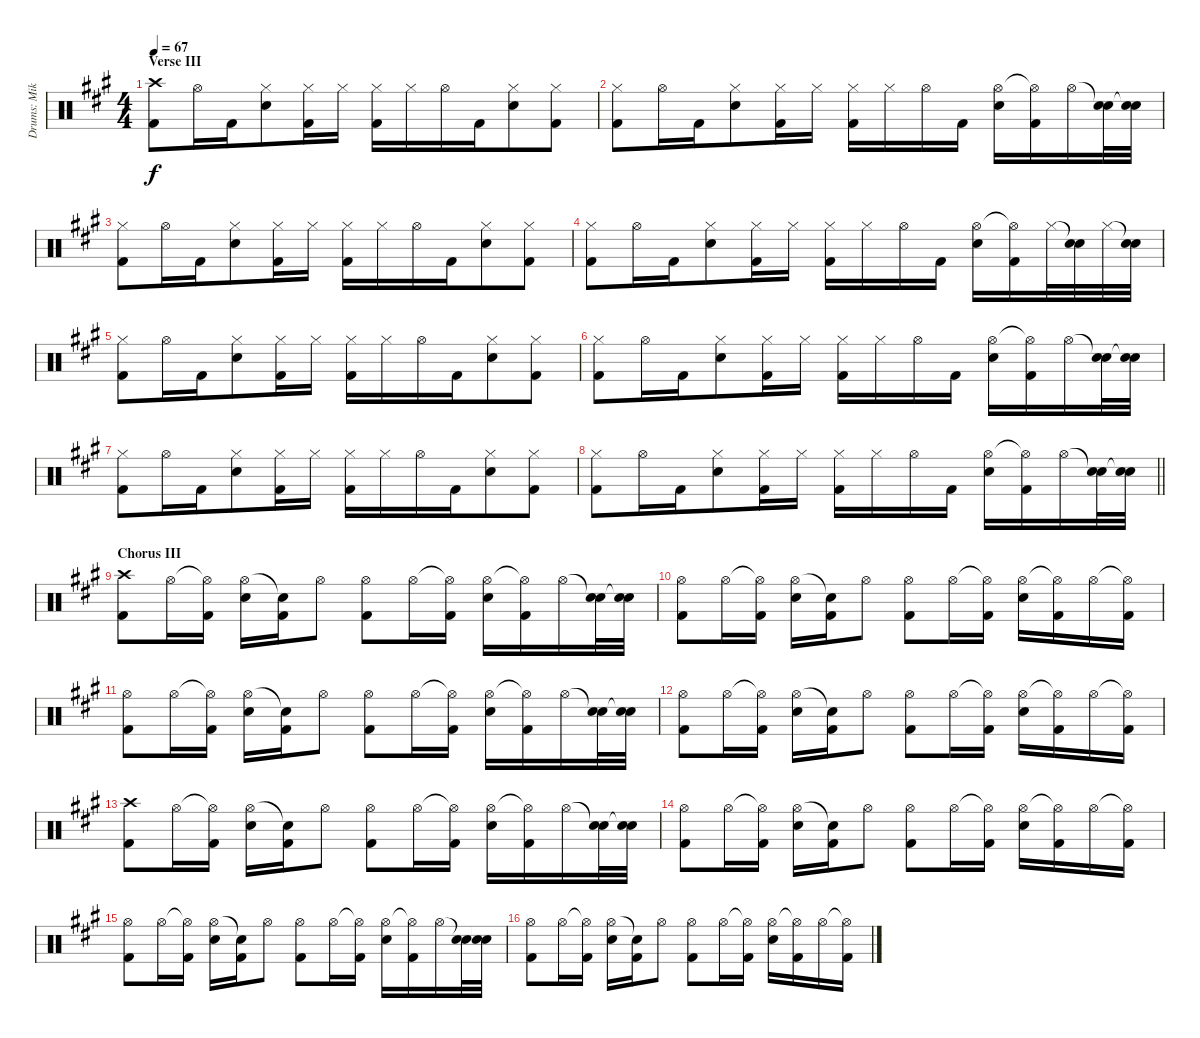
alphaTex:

\track ("Drums: Mike" "Drums: Mik") {instrument percussion}
\staff {score}
\articulation defaults
\ts (4 4)
\section ("" "Verse III")
\tempo 67
\clef neutral
\ks a
("Crash high (hit)" "Kick (hit) 2").8{dy f} "Hi-Hat (open)".16 "Kick (hit) 2".16{beam merge} ("Hi-Hat (closed)" "Electric Snare (hit)").8 ("Hi-Hat (closed)" "Kick (hit) 2").16 "Hi-Hat (closed)".16 ("Hi-Hat (closed)" "Kick (hit) 2").16 "Hi-Hat (closed)".16 "Hi-Hat (open)".16 "Kick (hit) 2".16{beam merge} ("Hi-Hat (closed)" "Electric Snare (hit)").8 ("Hi-Hat (closed)" "Kick (hit) 2").8 |
("Hi-Hat (closed)" "Kick (hit) 2").8 "Hi-Hat (open)".16 "Kick (hit) 2".16{beam merge} ("Hi-Hat (closed)" "Electric Snare (hit)").8 ("Hi-Hat (closed)" "Kick (hit) 2").16 "Hi-Hat (closed)".16 ("Hi-Hat (closed)" "Kick (hit) 2").16 "Hi-Hat (closed)".16 "Hi-Hat (open)".16 "Kick (hit) 2".16 ("Hi-Hat (open)" "Electric Snare (hit)").16 ("Hi-Hat (open)"{t} "Kick (hit) 2").16 "Hi-Hat (open)".16 ("Snare (hit)"{t} "Electric Snare (hit)").32 ("Snare (hit)"{t} "Electric Snare (hit)").32 |
("Hi-Hat (closed)" "Kick (hit) 2").8 "Hi-Hat (open)".16 "Kick (hit) 2".16{beam merge} ("Hi-Hat (closed)" "Electric Snare (hit)").8 ("Hi-Hat (closed)" "Kick (hit) 2").16 "Hi-Hat (closed)".16 ("Hi-Hat (closed)" "Kick (hit) 2").16 "Hi-Hat (closed)".16 "Hi-Hat (open)".16 "Kick (hit) 2".16{beam merge} ("Hi-Hat (closed)" "Electric Snare (hit)").8 ("Hi-Hat (closed)" "Kick (hit) 2").8 |
("Hi-Hat (closed)" "Kick (hit) 2").8 "Hi-Hat (open)".16 "Kick (hit) 2".16{beam merge} ("Hi-Hat (closed)" "Electric Snare (hit)").8 ("Hi-Hat (closed)" "Kick (hit) 2").16 "Hi-Hat (closed)".16 ("Hi-Hat (closed)" "Kick (hit) 2").16 "Hi-Hat (closed)".16 "Hi-Hat (open)".16 "Kick (hit) 2".16 ("Hi-Hat (open)" "Electric Snare (hit)").16 ("Hi-Hat (open)"{t} "Kick (hit) 2").16 "Hi-Hat (closed)".32 ("Snare (hit)"{t} "Electric Snare (hit)").32 "Hi-Hat (closed)".32 ("Snare (hit)"{t} "Electric Snare (hit)").32 |
("Hi-Hat (closed)" "Kick (hit) 2").8 "Hi-Hat (open)".16 "Kick (hit) 2".16{beam merge} ("Hi-Hat (closed)" "Electric Snare (hit)").8 ("Hi-Hat (closed)" "Kick (hit) 2").16 "Hi-Hat (closed)".16 ("Hi-Hat (closed)" "Kick (hit) 2").16 "Hi-Hat (closed)".16 "Hi-Hat (open)".16 "Kick (hit) 2".16{beam merge} ("Hi-Hat (closed)" "Electric Snare (hit)").8 ("Hi-Hat (closed)" "Kick (hit) 2").8 |
("Hi-Hat (closed)" "Kick (hit) 2").8 "Hi-Hat (open)".16 "Kick (hit) 2".16{beam merge} ("Hi-Hat (closed)" "Electric Snare (hit)").8 ("Hi-Hat (closed)" "Kick (hit) 2").16 "Hi-Hat (closed)".16 ("Hi-Hat (closed)" "Kick (hit) 2").16 "Hi-Hat (closed)".16 "Hi-Hat (open)".16 "Kick (hit) 2".16 ("Hi-Hat (open)" "Electric Snare (hit)").16 ("Hi-Hat (open)"{t} "Kick (hit) 2").16 "Hi-Hat (open)".16 ("Snare (hit)"{t} "Electric Snare (hit)").32 ("Snare (hit)"{t} "Electric Snare (hit)").32 |
("Hi-Hat (closed)" "Kick (hit) 2").8 "Hi-Hat (open)".16 "Kick (hit) 2".16{beam merge} ("Hi-Hat (closed)" "Electric Snare (hit)").8 ("Hi-Hat (closed)" "Kick (hit) 2").16 "Hi-Hat (closed)".16 ("Hi-Hat (closed)" "Kick (hit) 2").16 "Hi-Hat (closed)".16 "Hi-Hat (open)".16 "Kick (hit) 2".16{beam merge} ("Hi-Hat (closed)" "Electric Snare (hit)").8 ("Hi-Hat (closed)" "Kick (hit) 2").8 |
\barLineRight lightlight
("Hi-Hat (closed)" "Kick (hit) 2").8 "Hi-Hat (open)".16 "Kick (hit) 2".16{beam merge} ("Hi-Hat (closed)" "Electric Snare (hit)").8 ("Hi-Hat (closed)" "Kick (hit) 2").16 "Hi-Hat (closed)".16 ("Hi-Hat (closed)" "Kick (hit) 2").16 "Hi-Hat (closed)".16 "Hi-Hat (open)".16 "Kick (hit) 2".16 ("Hi-Hat (open)" "Electric Snare (hit)").16 ("Hi-Hat (open)"{t} "Kick (hit) 2").16 "Hi-Hat (open)".16 ("Snare (hit)"{t} "Electric Snare (hit)").32 ("Snare (hit)"{t} "Electric Snare (hit)").32 |
\section ("" "Chorus III")
("Crash high (hit)" "Kick (hit) 2").8 "Hi-Hat (open)".16 ("Hi-Hat (open)"{t} "Kick (hit) 2").16 ("Hi-Hat (open)" "Electric Snare (hit)").16 ("Snare (hit)"{t} "Kick (hit) 2").16 "Hi-Hat (open)".8 ("Hi-Hat (open)" "Kick (hit) 2").8 "Hi-Hat (open)".16 ("Hi-Hat (open)"{t} "Kick (hit) 2").16 ("Hi-Hat (open)" "Electric Snare (hit)").16 ("Hi-Hat (open)"{t} "Kick (hit) 2").16 "Hi-Hat (open)".16 ("Snare (hit)"{t} "Electric Snare (hit)").32 ("Snare (hit)"{t} "Electric Snare (hit)").32 |
("Hi-Hat (open)" "Kick (hit) 2").8 "Hi-Hat (open)".16 ("Hi-Hat (open)"{t} "Kick (hit) 2").16 ("Hi-Hat (open)" "Electric Snare (hit)").16 ("Snare (hit)"{t} "Kick (hit) 2").16 "Hi-Hat (open)".8 ("Hi-Hat (open)" "Kick (hit) 2").8 "Hi-Hat (open)".16 ("Hi-Hat (open)"{t} "Kick (hit) 2").16 ("Hi-Hat (open)" "Electric Snare (hit)").16 ("Hi-Hat (open)"{t} "Kick (hit) 2").16 "Hi-Hat (open)".16 ("Hi-Hat (open)"{t} "Kick (hit) 2").16 |
("Hi-Hat (open)" "Kick (hit) 2").8 "Hi-Hat (open)".16 ("Hi-Hat (open)"{t} "Kick (hit) 2").16 ("Hi-Hat (open)" "Electric Snare (hit)").16 ("Snare (hit)"{t} "Kick (hit) 2").16 "Hi-Hat (open)".8 ("Hi-Hat (open)" "Kick (hit) 2").8 "Hi-Hat (open)".16 ("Hi-Hat (open)"{t} "Kick (hit) 2").16 ("Hi-Hat (open)" "Electric Snare (hit)").16 ("Hi-Hat (open)"{t} "Kick (hit) 2").16 "Hi-Hat (open)".16 ("Snare (hit)"{t} "Electric Snare (hit)").32 ("Snare (hit)"{t} "Electric Snare (hit)").32 |
("Hi-Hat (open)" "Kick (hit) 2").8 "Hi-Hat (open)".16 ("Hi-Hat (open)"{t} "Kick (hit) 2").16 ("Hi-Hat (open)" "Electric Snare (hit)").16 ("Snare (hit)"{t} "Kick (hit) 2").16 "Hi-Hat (open)".8 ("Hi-Hat (open)" "Kick (hit) 2").8 "Hi-Hat (open)".16 ("Hi-Hat (open)"{t} "Kick (hit) 2").16 ("Hi-Hat (open)" "Electric Snare (hit)").16 ("Hi-Hat (open)"{t} "Kick (hit) 2").16 "Hi-Hat (open)".16 ("Hi-Hat (open)"{t} "Kick (hit) 2").16 |
("Crash high (hit)" "Kick (hit) 2").8 "Hi-Hat (open)".16 ("Hi-Hat (open)"{t} "Kick (hit) 2").16 ("Hi-Hat (open)" "Electric Snare (hit)").16 ("Snare (hit)"{t} "Kick (hit) 2").16 "Hi-Hat (open)".8 ("Hi-Hat (open)" "Kick (hit) 2").8 "Hi-Hat (open)".16 ("Hi-Hat (open)"{t} "Kick (hit) 2").16 ("Hi-Hat (open)" "Electric Snare (hit)").16 ("Hi-Hat (open)"{t} "Kick (hit) 2").16 "Hi-Hat (open)".16 ("Snare (hit)"{t} "Electric Snare (hit)").32 ("Snare (hit)"{t} "Electric Snare (hit)").32 |
("Hi-Hat (open)" "Kick (hit) 2").8 "Hi-Hat (open)".16 ("Hi-Hat (open)"{t} "Kick (hit) 2").16 ("Hi-Hat (open)" "Electric Snare (hit)").16 ("Snare (hit)"{t} "Kick (hit) 2").16 "Hi-Hat (open)".8 ("Hi-Hat (open)" "Kick (hit) 2").8 "Hi-Hat (open)".16 ("Hi-Hat (open)"{t} "Kick (hit) 2").16 ("Hi-Hat (open)" "Electric Snare (hit)").16 ("Hi-Hat (open)"{t} "Kick (hit) 2").16 "Hi-Hat (open)".16 ("Hi-Hat (open)"{t} "Kick (hit) 2").16 |
("Hi-Hat (open)" "Kick (hit) 2").8 "Hi-Hat (open)".16 ("Hi-Hat (open)"{t} "Kick (hit) 2").16 ("Hi-Hat (open)" "Electric Snare (hit)").16 ("Snare (hit)"{t} "Kick (hit) 2").16 "Hi-Hat (open)".8 ("Hi-Hat (open)" "Kick (hit) 2").8 "Hi-Hat (open)".16 ("Hi-Hat (open)"{t} "Kick (hit) 2").16 ("Hi-Hat (open)" "Electric Snare (hit)").16 ("Hi-Hat (open)"{t} "Kick (hit) 2").16 "Hi-Hat (open)".16 ("Snare (hit)"{t} "Electric Snare (hit)").32 ("Snare (hit)"{t} "Electric Snare (hit)").32 |
("Hi-Hat (open)" "Kick (hit) 2").8 "Hi-Hat (open)".16 ("Hi-Hat (open)"{t} "Kick (hit) 2").16 ("Hi-Hat (open)" "Electric Snare (hit)").16 ("Snare (hit)"{t} "Kick (hit) 2").16 "Hi-Hat (open)".8 ("Hi-Hat (open)" "Kick (hit) 2").8 "Hi-Hat (open)".16 ("Hi-Hat (open)"{t} "Kick (hit) 2").16 ("Hi-Hat (open)" "Electric Snare (hit)").16 ("Hi-Hat (open)"{t} "Kick (hit) 2").16 "Hi-Hat (open)".16 ("Hi-Hat (open)"{t} "Kick (hit) 2").16
